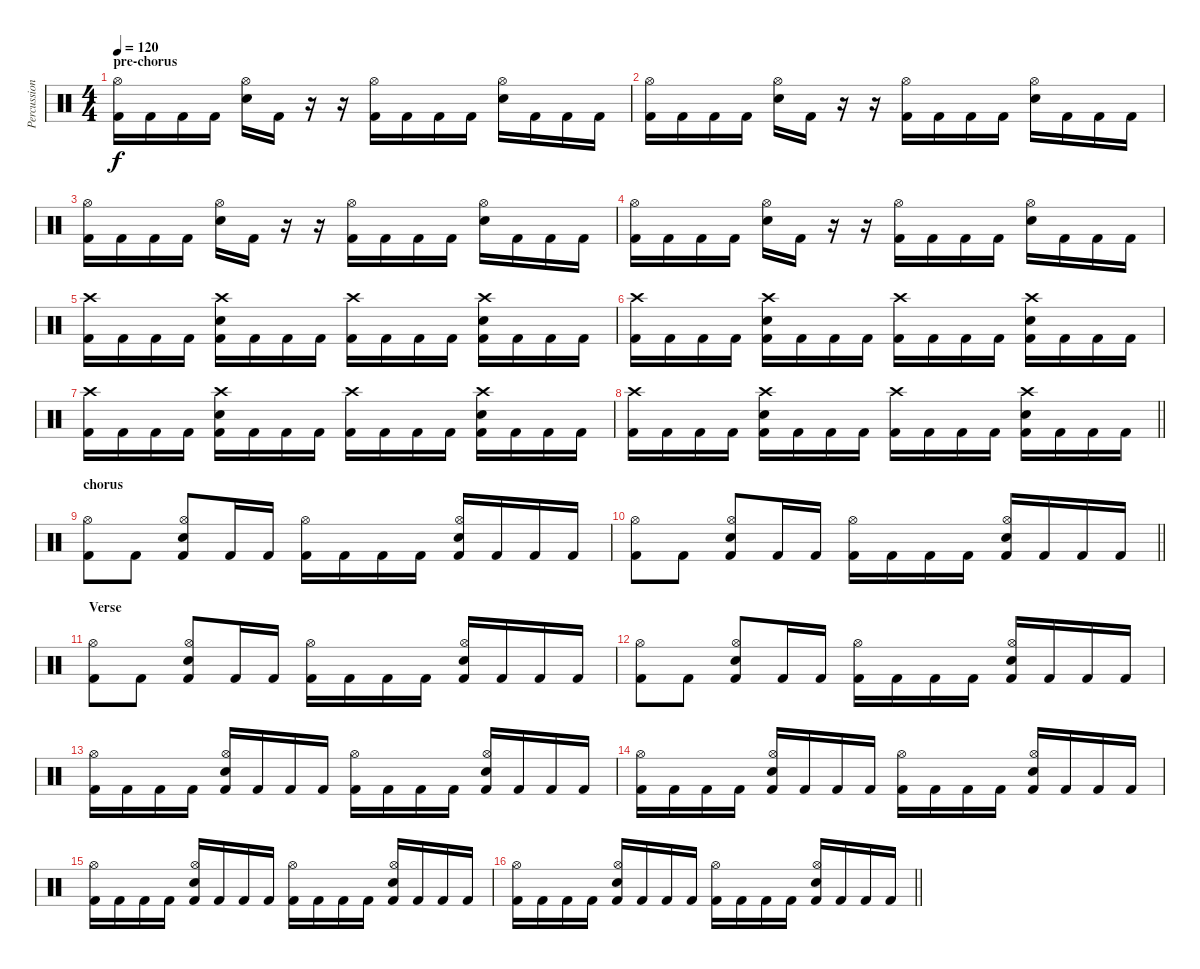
\track ("Percussion" "Percussion") {instrument percussion}
\staff {score}
\articulation defaults
\ts (4 4)
\section ("" "pre-chorus")
\tempo 120
\clef neutral
\ks c
("Kick (hit) 2" "Hi-Hat (open)").16{dy f} "Kick (hit) 2".16 "Kick (hit) 2".16 "Kick (hit) 2".16 ("Electric Snare (hit)" "Hi-Hat (open)").16 "Kick (hit) 2".16 r.16 r.16 ("Kick (hit) 2" "Hi-Hat (open)").16 "Kick (hit) 2".16 "Kick (hit) 2".16 "Kick (hit) 2".16 ("Electric Snare (hit)" "Hi-Hat (open)").16 "Kick (hit) 2".16 "Kick (hit) 2".16 "Kick (hit) 2".16 |
("Kick (hit) 2" "Hi-Hat (open)").16 "Kick (hit) 2".16 "Kick (hit) 2".16 "Kick (hit) 2".16 ("Electric Snare (hit)" "Hi-Hat (open)").16 "Kick (hit) 2".16 r.16 r.16 ("Kick (hit) 2" "Hi-Hat (open)").16 "Kick (hit) 2".16 "Kick (hit) 2".16 "Kick (hit) 2".16 ("Electric Snare (hit)" "Hi-Hat (open)").16 "Kick (hit) 2".16 "Kick (hit) 2".16 "Kick (hit) 2".16 |
("Kick (hit) 2" "Hi-Hat (open)").16 "Kick (hit) 2".16 "Kick (hit) 2".16 "Kick (hit) 2".16 ("Electric Snare (hit)" "Hi-Hat (open)").16 "Kick (hit) 2".16 r.16 r.16 ("Kick (hit) 2" "Hi-Hat (open)").16 "Kick (hit) 2".16 "Kick (hit) 2".16 "Kick (hit) 2".16 ("Electric Snare (hit)" "Hi-Hat (open)").16 "Kick (hit) 2".16 "Kick (hit) 2".16 "Kick (hit) 2".16 |
("Kick (hit) 2" "Hi-Hat (open)").16 "Kick (hit) 2".16 "Kick (hit) 2".16 "Kick (hit) 2".16 ("Electric Snare (hit)" "Hi-Hat (open)").16 "Kick (hit) 2".16 r.16 r.16 ("Kick (hit) 2" "Hi-Hat (open)").16 "Kick (hit) 2".16 "Kick (hit) 2".16 "Kick (hit) 2".16 ("Electric Snare (hit)" "Hi-Hat (open)").16 "Kick (hit) 2".16 "Kick (hit) 2".16 "Kick (hit) 2".16 |
("Kick (hit) 2" "Crash high (hit)").16 "Kick (hit) 2".16 "Kick (hit) 2".16 "Kick (hit) 2".16 ("Kick (hit) 2" "Crash high (hit)" "Electric Snare (hit)").16 "Kick (hit) 2".16 "Kick (hit) 2".16 "Kick (hit) 2".16 ("Kick (hit) 2" "Crash high (hit)").16 "Kick (hit) 2".16 "Kick (hit) 2".16 "Kick (hit) 2".16 ("Kick (hit) 2" "Crash high (hit)" "Electric Snare (hit)").16 "Kick (hit) 2".16 "Kick (hit) 2".16 "Kick (hit) 2".16 |
("Kick (hit) 2" "Crash high (hit)").16 "Kick (hit) 2".16 "Kick (hit) 2".16 "Kick (hit) 2".16 ("Kick (hit) 2" "Crash high (hit)" "Electric Snare (hit)").16 "Kick (hit) 2".16 "Kick (hit) 2".16 "Kick (hit) 2".16 ("Kick (hit) 2" "Crash high (hit)").16 "Kick (hit) 2".16 "Kick (hit) 2".16 "Kick (hit) 2".16 ("Kick (hit) 2" "Crash high (hit)" "Electric Snare (hit)").16 "Kick (hit) 2".16 "Kick (hit) 2".16 "Kick (hit) 2".16 |
("Kick (hit) 2" "Crash high (hit)").16 "Kick (hit) 2".16 "Kick (hit) 2".16 "Kick (hit) 2".16 ("Kick (hit) 2" "Crash high (hit)" "Electric Snare (hit)").16 "Kick (hit) 2".16 "Kick (hit) 2".16 "Kick (hit) 2".16 ("Kick (hit) 2" "Crash high (hit)").16 "Kick (hit) 2".16 "Kick (hit) 2".16 "Kick (hit) 2".16 ("Kick (hit) 2" "Crash high (hit)" "Electric Snare (hit)").16 "Kick (hit) 2".16 "Kick (hit) 2".16 "Kick (hit) 2".16 |
\barLineRight lightlight
("Kick (hit) 2" "Crash high (hit)").16 "Kick (hit) 2".16 "Kick (hit) 2".16 "Kick (hit) 2".16 ("Kick (hit) 2" "Crash high (hit)" "Electric Snare (hit)").16 "Kick (hit) 2".16 "Kick (hit) 2".16 "Kick (hit) 2".16 ("Kick (hit) 2" "Crash high (hit)").16 "Kick (hit) 2".16 "Kick (hit) 2".16 "Kick (hit) 2".16 ("Kick (hit) 2" "Crash high (hit)" "Electric Snare (hit)").16 "Kick (hit) 2".16 "Kick (hit) 2".16 "Kick (hit) 2".16 |
\section ("" "chorus")
("Kick (hit) 2" "Hi-Hat (open)").8 "Kick (hit) 2".8 ("Kick (hit) 2" "Hi-Hat (open)" "Electric Snare (hit)").8 "Kick (hit) 2".16 "Kick (hit) 2".16 ("Kick (hit) 2" "Hi-Hat (open)").16 "Kick (hit) 2".16 "Kick (hit) 2".16 "Kick (hit) 2".16 ("Kick (hit) 2" "Hi-Hat (open)" "Electric Snare (hit)").16 "Kick (hit) 2".16 "Kick (hit) 2".16 "Kick (hit) 2".16 |
\barLineRight lightlight
("Kick (hit) 2" "Hi-Hat (open)").8 "Kick (hit) 2".8 ("Kick (hit) 2" "Hi-Hat (open)" "Electric Snare (hit)").8 "Kick (hit) 2".16 "Kick (hit) 2".16 ("Kick (hit) 2" "Hi-Hat (open)").16 "Kick (hit) 2".16 "Kick (hit) 2".16 "Kick (hit) 2".16 ("Kick (hit) 2" "Hi-Hat (open)" "Electric Snare (hit)").16 "Kick (hit) 2".16 "Kick (hit) 2".16 "Kick (hit) 2".16 |
\section ("" "Verse")
("Kick (hit) 2" "Hi-Hat (open)").8 "Kick (hit) 2".8 ("Kick (hit) 2" "Hi-Hat (open)" "Electric Snare (hit)").8 "Kick (hit) 2".16 "Kick (hit) 2".16 ("Kick (hit) 2" "Hi-Hat (open)").16 "Kick (hit) 2".16 "Kick (hit) 2".16 "Kick (hit) 2".16 ("Kick (hit) 2" "Hi-Hat (open)" "Electric Snare (hit)").16 "Kick (hit) 2".16 "Kick (hit) 2".16 "Kick (hit) 2".16 |
("Kick (hit) 2" "Hi-Hat (open)").8 "Kick (hit) 2".8 ("Kick (hit) 2" "Hi-Hat (open)" "Electric Snare (hit)").8 "Kick (hit) 2".16 "Kick (hit) 2".16 ("Kick (hit) 2" "Hi-Hat (open)").16 "Kick (hit) 2".16 "Kick (hit) 2".16 "Kick (hit) 2".16 ("Kick (hit) 2" "Hi-Hat (open)" "Electric Snare (hit)").16 "Kick (hit) 2".16 "Kick (hit) 2".16 "Kick (hit) 2".16 |
("Kick (hit) 2" "Hi-Hat (open)").16 "Kick (hit) 2".16 "Kick (hit) 2".16 "Kick (hit) 2".16 ("Kick (hit) 2" "Hi-Hat (open)" "Electric Snare (hit)").16 "Kick (hit) 2".16 "Kick (hit) 2".16 "Kick (hit) 2".16 ("Kick (hit) 2" "Hi-Hat (open)").16 "Kick (hit) 2".16 "Kick (hit) 2".16 "Kick (hit) 2".16 ("Kick (hit) 2" "Hi-Hat (open)" "Electric Snare (hit)").16 "Kick (hit) 2".16 "Kick (hit) 2".16 "Kick (hit) 2".16 |
("Kick (hit) 2" "Hi-Hat (open)").16 "Kick (hit) 2".16 "Kick (hit) 2".16 "Kick (hit) 2".16 ("Kick (hit) 2" "Hi-Hat (open)" "Electric Snare (hit)").16 "Kick (hit) 2".16 "Kick (hit) 2".16 "Kick (hit) 2".16 ("Kick (hit) 2" "Hi-Hat (open)").16 "Kick (hit) 2".16 "Kick (hit) 2".16 "Kick (hit) 2".16 ("Kick (hit) 2" "Hi-Hat (open)" "Electric Snare (hit)").16 "Kick (hit) 2".16 "Kick (hit) 2".16 "Kick (hit) 2".16 |
("Kick (hit) 2" "Hi-Hat (open)").16 "Kick (hit) 2".16 "Kick (hit) 2".16 "Kick (hit) 2".16 ("Kick (hit) 2" "Hi-Hat (open)" "Electric Snare (hit)").16 "Kick (hit) 2".16 "Kick (hit) 2".16 "Kick (hit) 2".16 ("Kick (hit) 2" "Hi-Hat (open)").16 "Kick (hit) 2".16 "Kick (hit) 2".16 "Kick (hit) 2".16 ("Kick (hit) 2" "Hi-Hat (open)" "Electric Snare (hit)").16 "Kick (hit) 2".16 "Kick (hit) 2".16 "Kick (hit) 2".16 |
\barLineRight lightlight
("Kick (hit) 2" "Hi-Hat (open)").16 "Kick (hit) 2".16 "Kick (hit) 2".16 "Kick (hit) 2".16 ("Kick (hit) 2" "Hi-Hat (open)" "Electric Snare (hit)").16 "Kick (hit) 2".16 "Kick (hit) 2".16 "Kick (hit) 2".16 ("Kick (hit) 2" "Hi-Hat (open)").16 "Kick (hit) 2".16 "Kick (hit) 2".16 "Kick (hit) 2".16 ("Kick (hit) 2" "Hi-Hat (open)" "Electric Snare (hit)").16 "Kick (hit) 2".16 "Kick (hit) 2".16 "Kick (hit) 2".16
